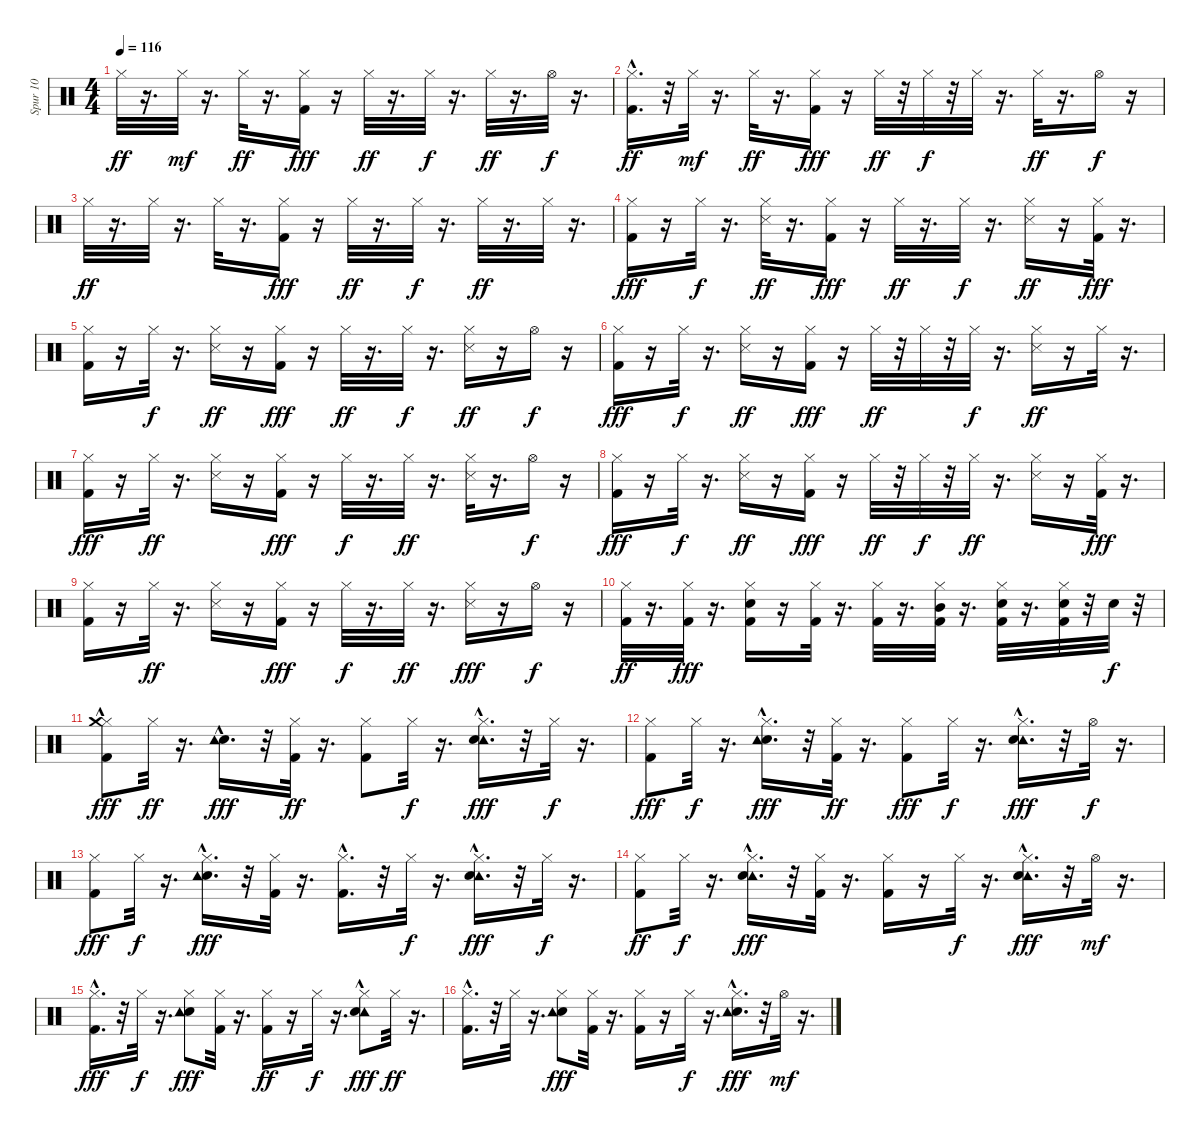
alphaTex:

\track ("Spur 10" "Spur 10") {instrument percussion}
\staff {score}
\articulation defaults
\ts (4 4)
\tempo 116
\clef neutral
\ks c "Hi-Hat (closed)".32{dy ff}
r.16{d} "Hi-Hat (closed)".32{dy mf} r.16{d} "Hi-Hat (closed)".32{dy ff} r.16{d} ("Hi-Hat (closed)" "Kick (hit) 2").16{dy fff} r.16 "Hi-Hat (closed)".32{dy ff} r.16{d} "Hi-Hat (closed)".32{dy f} r.16{d} "Hi-Hat (closed)".32{dy ff} r.16{d} "Hi-Hat (open)".32{dy f} r.16{d} |
("Hi-Hat (closed)" "Kick (hit) 2"{hac}).16{d dy ff} r.32 "Hi-Hat (closed)".32{dy mf} r.16{d} "Hi-Hat (closed)".32{dy ff} r.16{d} ("Hi-Hat (closed)" "Kick (hit) 2").16{dy fff} r.16 "Hi-Hat (closed)".32{dy ff} r.32 "Hi-Hat (closed)".32{dy f} r.32 "Hi-Hat (closed)".32 r.16{d} "Hi-Hat (closed)".32{dy ff} r.16{d} "Hi-Hat (open)".16{dy f} r.16 |
"Hi-Hat (closed)".32{dy ff} r.16{d} "Hi-Hat (closed)".32 r.16{d} "Hi-Hat (closed)".32 r.16{d} ("Hi-Hat (closed)" "Kick (hit) 2").16{dy fff} r.16 "Hi-Hat (closed)".32{dy ff} r.16{d} "Hi-Hat (closed)".32{dy f} r.16{d} "Hi-Hat (closed)".32{dy ff} r.16{d} "Hi-Hat (closed)".32 r.16{d} |
("Hi-Hat (closed)" "Kick (hit) 2").16{dy fff} r.16 "Hi-Hat (closed)".32{dy f} r.16{d} ("Hi-Hat (closed)" "Snare (side stick) 3").32{dy ff} r.16{d} ("Hi-Hat (closed)" "Kick (hit) 2").16{dy fff} r.16 "Hi-Hat (closed)".32{dy ff} r.16{d} "Hi-Hat (closed)".32{dy f} r.16{d} ("Hi-Hat (closed)" "Snare (side stick) 3").16{dy ff} r.16 ("Hi-Hat (closed)" "Kick (hit) 2").32{dy fff} r.16{d} |
("Hi-Hat (closed)" "Kick (hit) 2").16 r.16 "Hi-Hat (closed)".32{dy f} r.16{d} ("Hi-Hat (closed)" "Snare (side stick) 3").16{dy ff} r.16 ("Hi-Hat (closed)" "Kick (hit) 2").16{dy fff} r.16 "Hi-Hat (closed)".32{dy ff} r.16{d} "Hi-Hat (closed)".32{dy f} r.16{d} ("Hi-Hat (closed)" "Snare (side stick) 3").16{dy ff} r.16 "Hi-Hat (open)".16{dy f} r.16 |
("Hi-Hat (closed)" "Kick (hit) 2").16{dy fff} r.16 "Hi-Hat (closed)".32{dy f} r.16{d} ("Hi-Hat (closed)" "Snare (side stick) 3").16{dy ff} r.16 ("Hi-Hat (closed)" "Kick (hit) 2").16{dy fff} r.16 "Hi-Hat (closed)".32{dy ff} r.32 "Hi-Hat (closed)".32 r.32 "Hi-Hat (closed)".32{dy f} r.16{d} ("Hi-Hat (closed)" "Snare (side stick) 3").16{dy ff} r.16 "Hi-Hat (closed)".32 r.16{d} |
("Hi-Hat (closed)" "Kick (hit) 2").16{dy fff} r.16 "Hi-Hat (closed)".32{dy ff} r.16{d} ("Hi-Hat (closed)" "Snare (side stick) 3").16 r.16 ("Hi-Hat (closed)" "Kick (hit) 2").16{dy fff} r.16 "Hi-Hat (closed)".32{dy f} r.16{d} "Hi-Hat (closed)".32{dy ff} r.16{d} ("Hi-Hat (closed)" "Snare (side stick) 3").32 r.16{d} "Hi-Hat (open)".16{dy f} r.16 |
("Hi-Hat (closed)" "Kick (hit) 2").16{dy fff} r.16 "Hi-Hat (closed)".32{dy f} r.16{d} ("Hi-Hat (closed)" "Snare (side stick) 3").16{dy ff} r.16 ("Hi-Hat (closed)" "Kick (hit) 2").16{dy fff} r.16 "Hi-Hat (closed)".32{dy ff} r.32 "Hi-Hat (closed)".32{dy f} r.32 "Hi-Hat (closed)".32{dy ff} r.16{d} ("Hi-Hat (closed)" "Snare (side stick) 3").16 r.16 ("Hi-Hat (closed)" "Kick (hit) 2").32{dy fff} r.16{d} |
("Hi-Hat (closed)" "Kick (hit) 2").16 r.16 "Hi-Hat (closed)".32{dy ff} r.16{d} ("Hi-Hat (closed)" "Snare (side stick) 3").16 r.16 ("Hi-Hat (closed)" "Kick (hit) 2").16{dy fff} r.16 "Hi-Hat (closed)".32{dy f} r.16{d} "Hi-Hat (closed)".32{dy ff} r.16{d} ("Hi-Hat (closed)" "Snare (side stick) 3").16{dy fff} r.16 "Hi-Hat (open)".16{dy f} r.16 |
("Hi-Hat (closed)" "Kick (hit) 2").32{dy ff} r.16{d} ("Hi-Hat (closed)" "Kick (hit) 2").32{dy fff} r.16{d} ("Hi-Hat (closed)" "Kick (hit) 2" "Snare (hit) 2").16 r.16 ("Hi-Hat (closed)" "Kick (hit) 2").32 r.16{d} ("Hi-Hat (closed)" "Kick (hit) 2").32 r.16{d} ("Hi-Hat (closed)" "Kick (hit) 2" "Mid Tom (hit)").32 r.16{d} ("Hi-Hat (closed)" "Kick (hit) 2" "Snare (hit) 2").32 r.16{d} ("Hi-Hat (closed)" "Kick (hit) 2" "Snare (hit) 2").32 r.32 "Snare (hit) 2".32{dy f} r.32 |
("Kick (hit) 2" "Hi-Hat (closed)" "Crash medium (hit)"{hac}).8{dy fff} "Hi-Hat (closed)".32{dy ff} r.16{d} ("Snare (hit) 2"{hac} "Tambourine (hit)").16{d dy fff} r.32 ("Kick (hit) 2" "Hi-Hat (closed)").32{dy ff} r.16{d} ("Kick (hit) 2" "Hi-Hat (closed)").8 "Hi-Hat (closed)".32{dy f} r.16{d} ("Hi-Hat (closed)" "Tambourine (hit)"{hac} "Snare (hit) 2"{hac}).16{d dy fff} r.32 "Hi-Hat (closed)".32{dy f} r.16{d} |
("Kick (hit) 2" "Hi-Hat (closed)").8{dy fff} "Hi-Hat (closed)".32{dy f} r.16{d} ("Hi-Hat (closed)" "Snare (hit) 2"{hac} "Tambourine (hit)"{hac}).16{d dy fff} r.32 ("Kick (hit) 2" "Hi-Hat (closed)").32{dy ff} r.16{d} ("Kick (hit) 2" "Hi-Hat (closed)").8{dy fff} "Hi-Hat (closed)".32{dy f} r.16{d} ("Hi-Hat (closed)" "Tambourine (hit)"{hac} "Snare (hit) 2"{hac}).16{d dy fff} r.32 "Hi-Hat (open)".32{dy f} r.16{d} |
("Kick (hit) 2" "Hi-Hat (closed)").8{dy fff} "Hi-Hat (closed)".32{dy f} r.16{d} ("Hi-Hat (closed)" "Snare (hit) 2"{hac} "Tambourine (hit)"{hac}).16{d dy fff} r.32 ("Kick (hit) 2" "Hi-Hat (closed)").32 r.16{d} ("Kick (hit) 2"{hac} "Hi-Hat (closed)").16{d} r.32 "Hi-Hat (closed)".32{dy f} r.16{d} ("Hi-Hat (closed)" "Tambourine (hit)"{hac} "Snare (hit) 2"{hac}).16{d dy fff} r.32 "Hi-Hat (closed)".32{dy f} r.16{d} |
("Kick (hit) 2" "Hi-Hat (closed)").8{dy ff} "Hi-Hat (closed)".32{dy f} r.16{d} ("Hi-Hat (closed)" "Tambourine (hit)"{hac} "Snare (hit) 2"{hac}).16{d dy fff} r.32 ("Kick (hit) 2" "Hi-Hat (closed)").32 r.16{d} ("Kick (hit) 2" "Hi-Hat (closed)").16 r.16 "Hi-Hat (closed)".32{dy f} r.16{d} ("Hi-Hat (closed)" "Tambourine (hit)"{hac} "Snare (hit) 2"{hac}).16{d dy fff} r.32 "Hi-Hat (open)".32{dy mf} r.16{d} |
("Kick (hit) 2"{hac} "Hi-Hat (closed)").16{d dy fff} r.32 "Hi-Hat (closed)".32{dy f} r.16{d} ("Hi-Hat (closed)" "Snare (hit) 2" "Tambourine (hit)").8{dy fff} ("Kick (hit) 2" "Hi-Hat (closed)").32 r.16{d} ("Kick (hit) 2" "Hi-Hat (closed)").16{dy ff} r.16 "Hi-Hat (closed)".32{dy f} r.16{d} ("Hi-Hat (closed)" "Tambourine (hit)" "Snare (hit) 2"{hac}).8{dy fff} "Hi-Hat (closed)".32{dy ff} r.16{d} |
("Kick (hit) 2"{hac} "Hi-Hat (closed)").16{d} r.32 "Hi-Hat (closed)".32 r.16{d} ("Hi-Hat (closed)" "Snare (hit) 2" "Tambourine (hit)").8{dy fff} ("Kick (hit) 2" "Hi-Hat (closed)").32 r.16{d} ("Kick (hit) 2" "Hi-Hat (closed)").16 r.16 "Hi-Hat (closed)".32{dy f} r.16{d} ("Hi-Hat (closed)" "Snare (hit) 2"{hac} "Tambourine (hit)"{hac}).16{d dy fff} r.32 "Hi-Hat (open)".32{dy mf} r.16{d}
